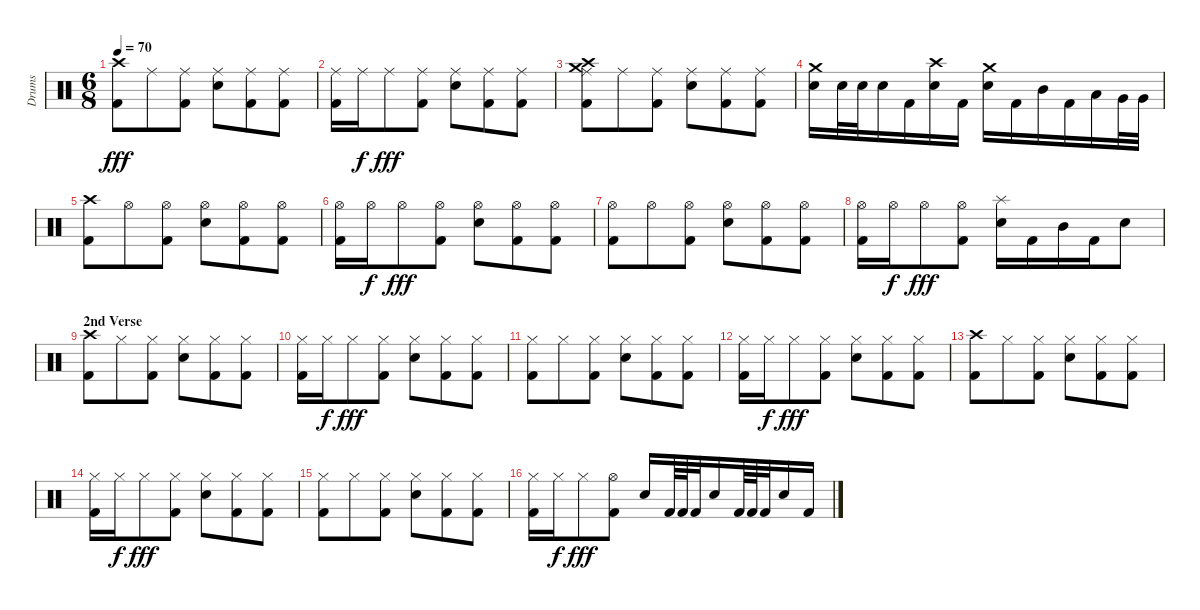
\track ("Drums" "Drums") {instrument percussion}
\staff {score}
\articulation defaults
\ts (6 8)
\tempo 70
\clef neutral
\ks c
("Crash high (hit)" "Kick (hit) 2").8{dy fff} "Ride (middle)".8 ("Ride (middle)" "Kick (hit) 2").8 ("Ride (middle)" "Electric Snare (hit)").8 ("Ride (middle)" "Kick (hit) 2").8 ("Ride (middle)" "Kick (hit) 2").8 |
("Ride (middle)" "Kick (hit) 2").16 "Ride (middle)".16{dy f} "Ride (middle)".8{dy fff} ("Ride (middle)" "Kick (hit) 2").8 ("Ride (middle)" "Electric Snare (hit)").8 ("Ride (middle)" "Kick (hit) 2").8 ("Ride (middle)" "Kick (hit) 2").8 |
("Crash medium (hit)" "Crash high (hit)" "Ride (middle)" "Kick (hit) 2").8 "Ride (middle)".8 ("Ride (middle)" "Kick (hit) 2").8 ("Ride (middle)" "Electric Snare (hit)").8 ("Ride (middle)" "Kick (hit) 2").8 ("Ride (middle)" "Kick (hit) 2").8 |
("Crash medium (hit)" "Electric Snare (hit)").16 "Electric Snare (hit)".32 "Electric Snare (hit)".32 "Electric Snare (hit)".16 "Kick (hit) 2".16 ("Crash high (hit)" "Electric Snare (hit)").16 "Kick (hit) 2".16 ("Crash medium (hit)" "Electric Snare (hit)").16 "Kick (hit) 2".16 "Mid Tom (hit)".16 "Kick (hit) 2".16 "Low Tom (hit)".16 "Very Low Tom (hit)".32 "Very Low Tom (hit)".32 |
("Crash high (hit)" "Kick (hit) 2").8 "Hi-Hat (open)".8 ("Hi-Hat (open)" "Kick (hit) 2").8 ("Hi-Hat (open)" "Electric Snare (hit)").8 ("Hi-Hat (open)" "Kick (hit) 2").8 ("Hi-Hat (open)" "Kick (hit) 2").8 |
("Hi-Hat (open)" "Kick (hit) 2").16 "Hi-Hat (open)".16{dy f} "Hi-Hat (open)".8{dy fff} ("Hi-Hat (open)" "Kick (hit) 2").8 ("Hi-Hat (open)" "Electric Snare (hit)").8 ("Hi-Hat (open)" "Kick (hit) 2").8 ("Hi-Hat (open)" "Kick (hit) 2").8 |
("Hi-Hat (open)" "Kick (hit) 2").8 "Hi-Hat (open)".8 ("Hi-Hat (open)" "Kick (hit) 2").8 ("Hi-Hat (open)" "Electric Snare (hit)").8 ("Hi-Hat (open)" "Kick (hit) 2").8 ("Hi-Hat (open)" "Kick (hit) 2").8 |
("Hi-Hat (open)" "Kick (hit) 2").16 "Hi-Hat (open)".16{dy f} "Hi-Hat (open)".8{dy fff} ("Hi-Hat (open)" "Kick (hit) 2").8 ("Splash (hit)" "Electric Snare (hit)").16 "Kick (hit) 2".16 "Mid Tom (hit)".16 "Kick (hit) 2".16 "Electric Snare (hit)".8 |
\section ("" "2nd Verse")
("Crash high (hit)" "Kick (hit) 2").8 "Hi-Hat (closed)".8 ("Hi-Hat (closed)" "Kick (hit) 2").8 ("Hi-Hat (closed)" "Electric Snare (hit)").8 ("Hi-Hat (closed)" "Kick (hit) 2").8 ("Hi-Hat (closed)" "Kick (hit) 2").8 |
("Hi-Hat (closed)" "Kick (hit) 2").16 "Hi-Hat (closed)".16{dy f} "Hi-Hat (closed)".8{dy fff} ("Hi-Hat (closed)" "Kick (hit) 2").8 ("Hi-Hat (closed)" "Electric Snare (hit)").8 ("Hi-Hat (closed)" "Kick (hit) 2").8 ("Hi-Hat (closed)" "Kick (hit) 2").8 |
("Hi-Hat (closed)" "Kick (hit) 2").8 "Hi-Hat (closed)".8 ("Hi-Hat (closed)" "Kick (hit) 2").8 ("Hi-Hat (closed)" "Electric Snare (hit)").8 ("Hi-Hat (closed)" "Kick (hit) 2").8 ("Hi-Hat (closed)" "Kick (hit) 2").8 |
("Hi-Hat (closed)" "Kick (hit) 2").16 "Hi-Hat (closed)".16{dy f} "Hi-Hat (closed)".8{dy fff} ("Hi-Hat (closed)" "Kick (hit) 2").8 ("Hi-Hat (closed)" "Electric Snare (hit)").8 ("Hi-Hat (closed)" "Kick (hit) 2").8 ("Hi-Hat (closed)" "Kick (hit) 2").8 |
("Crash high (hit)" "Kick (hit) 2").8 "Hi-Hat (closed)".8 ("Hi-Hat (closed)" "Kick (hit) 2").8 ("Hi-Hat (closed)" "Electric Snare (hit)").8 ("Hi-Hat (closed)" "Kick (hit) 2").8 ("Hi-Hat (closed)" "Kick (hit) 2").8 |
("Hi-Hat (closed)" "Kick (hit) 2").16 "Hi-Hat (closed)".16{dy f} "Hi-Hat (closed)".8{dy fff} ("Hi-Hat (closed)" "Kick (hit) 2").8 ("Hi-Hat (closed)" "Electric Snare (hit)").8 ("Hi-Hat (closed)" "Kick (hit) 2").8 ("Hi-Hat (closed)" "Kick (hit) 2").8 |
("Hi-Hat (closed)" "Kick (hit) 2").8 "Hi-Hat (closed)".8 ("Hi-Hat (closed)" "Kick (hit) 2").8 ("Hi-Hat (closed)" "Electric Snare (hit)").8 ("Hi-Hat (closed)" "Kick (hit) 2").8 ("Hi-Hat (closed)" "Kick (hit) 2").8 |
("Hi-Hat (closed)" "Kick (hit) 2").16 "Hi-Hat (closed)".16{dy f} "Hi-Hat (closed)".8{dy fff} ("Hi-Hat (open)" "Kick (hit) 2").8 "Electric Snare (hit)".16 "Kick (hit) 2".64 "Kick (hit) 2".64 "Kick (hit) 2".32 "Electric Snare (hit)".16 "Kick (hit) 2".64 "Kick (hit) 2".64 "Kick (hit) 2".32 "Electric Snare (hit)".16 "Kick (hit) 2".16
